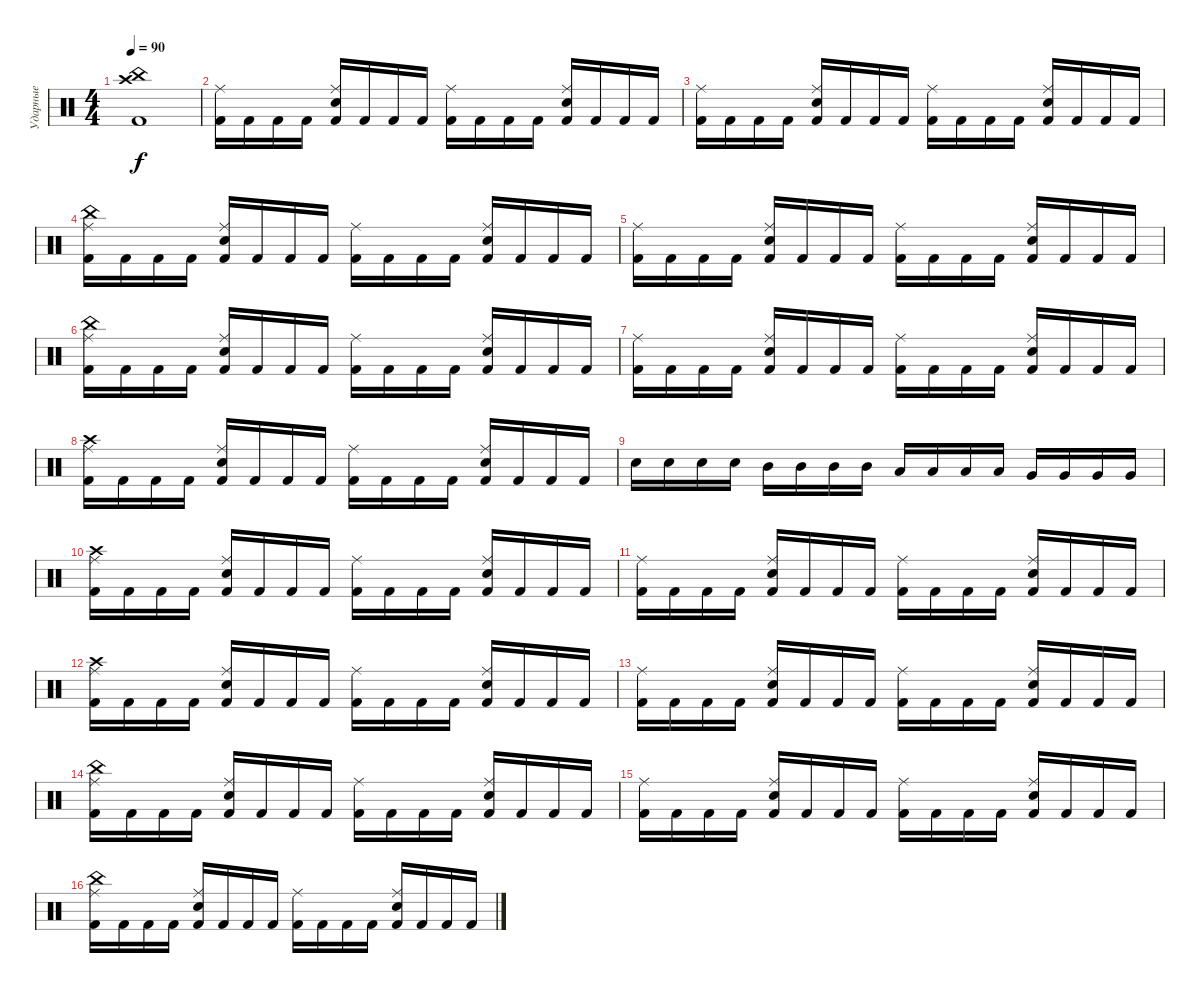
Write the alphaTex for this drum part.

\track ("Ударные" "Ударные") {instrument percussion}
\staff {score}
\articulation defaults
\ts (4 4)
\tempo 90
\clef neutral
\ks c
("Kick (hit) 2" "Crash high (hit)" "China (hit)").1{dy f} |
("Kick (hit) 2" "Ride (middle)").16 "Kick (hit) 2".16 "Kick (hit) 2".16 "Kick (hit) 2".16 ("Kick (hit) 2" "Ride (middle)" "Snare (hit) 2").16 "Kick (hit) 2".16 "Kick (hit) 2".16 "Kick (hit) 2".16 ("Kick (hit) 2" "Ride (middle)").16 "Kick (hit) 2".16 "Kick (hit) 2".16 "Kick (hit) 2".16 ("Kick (hit) 2" "Ride (middle)" "Snare (hit) 2").16 "Kick (hit) 2".16 "Kick (hit) 2".16 "Kick (hit) 2".16 |
("Kick (hit) 2" "Ride (middle)").16 "Kick (hit) 2".16 "Kick (hit) 2".16 "Kick (hit) 2".16 ("Kick (hit) 2" "Ride (middle)" "Snare (hit) 2").16 "Kick (hit) 2".16 "Kick (hit) 2".16 "Kick (hit) 2".16 ("Kick (hit) 2" "Ride (middle)").16 "Kick (hit) 2".16 "Kick (hit) 2".16 "Kick (hit) 2".16 ("Kick (hit) 2" "Ride (middle)" "Snare (hit) 2").16 "Kick (hit) 2".16 "Kick (hit) 2".16 "Kick (hit) 2".16 |
("Kick (hit) 2" "Ride (middle)" "China (hit)").16 "Kick (hit) 2".16 "Kick (hit) 2".16 "Kick (hit) 2".16 ("Kick (hit) 2" "Ride (middle)" "Snare (hit) 2").16 "Kick (hit) 2".16 "Kick (hit) 2".16 "Kick (hit) 2".16 ("Kick (hit) 2" "Ride (middle)").16 "Kick (hit) 2".16 "Kick (hit) 2".16 "Kick (hit) 2".16 ("Kick (hit) 2" "Ride (middle)" "Snare (hit) 2").16 "Kick (hit) 2".16 "Kick (hit) 2".16 "Kick (hit) 2".16 |
("Kick (hit) 2" "Ride (middle)").16 "Kick (hit) 2".16 "Kick (hit) 2".16 "Kick (hit) 2".16 ("Kick (hit) 2" "Ride (middle)" "Snare (hit) 2").16 "Kick (hit) 2".16 "Kick (hit) 2".16 "Kick (hit) 2".16 ("Kick (hit) 2" "Ride (middle)").16 "Kick (hit) 2".16 "Kick (hit) 2".16 "Kick (hit) 2".16 ("Kick (hit) 2" "Ride (middle)" "Snare (hit) 2").16 "Kick (hit) 2".16 "Kick (hit) 2".16 "Kick (hit) 2".16 |
("Kick (hit) 2" "Ride (middle)" "China (hit)").16 "Kick (hit) 2".16 "Kick (hit) 2".16 "Kick (hit) 2".16 ("Kick (hit) 2" "Ride (middle)" "Snare (hit) 2").16 "Kick (hit) 2".16 "Kick (hit) 2".16 "Kick (hit) 2".16 ("Kick (hit) 2" "Ride (middle)").16 "Kick (hit) 2".16 "Kick (hit) 2".16 "Kick (hit) 2".16 ("Kick (hit) 2" "Ride (middle)" "Snare (hit) 2").16 "Kick (hit) 2".16 "Kick (hit) 2".16 "Kick (hit) 2".16 |
("Kick (hit) 2" "Ride (middle)").16 "Kick (hit) 2".16 "Kick (hit) 2".16 "Kick (hit) 2".16 ("Kick (hit) 2" "Ride (middle)" "Snare (hit) 2").16 "Kick (hit) 2".16 "Kick (hit) 2".16 "Kick (hit) 2".16 ("Kick (hit) 2" "Ride (middle)").16 "Kick (hit) 2".16 "Kick (hit) 2".16 "Kick (hit) 2".16 ("Kick (hit) 2" "Ride (middle)" "Snare (hit) 2").16 "Kick (hit) 2".16 "Kick (hit) 2".16 "Kick (hit) 2".16 |
("Kick (hit) 2" "Ride (middle)" "Crash high (hit)").16 "Kick (hit) 2".16 "Kick (hit) 2".16 "Kick (hit) 2".16 ("Kick (hit) 2" "Ride (middle)" "Snare (hit) 2").16 "Kick (hit) 2".16 "Kick (hit) 2".16 "Kick (hit) 2".16 ("Kick (hit) 2" "Ride (middle)").16 "Kick (hit) 2".16 "Kick (hit) 2".16 "Kick (hit) 2".16 ("Kick (hit) 2" "Ride (middle)" "Snare (hit) 2").16 "Kick (hit) 2".16 "Kick (hit) 2".16 "Kick (hit) 2".16 |
"Snare (hit) 2".16 "Snare (hit) 2".16 "Snare (hit) 2".16 "Snare (hit) 2".16 "Mid Tom (hit)".16 "Mid Tom (hit)".16 "Mid Tom (hit)".16 "Mid Tom (hit)".16 "Low Tom (hit)".16 "Low Tom (hit)".16 "Low Tom (hit)".16 "Low Tom (hit)".16 "Very Low Tom (hit)".16 "Very Low Tom (hit)".16 "Very Low Tom (hit)".16 "Very Low Tom (hit)".16 |
("Kick (hit) 2" "Ride (middle)" "Crash high (hit)").16 "Kick (hit) 2".16 "Kick (hit) 2".16 "Kick (hit) 2".16 ("Kick (hit) 2" "Ride (middle)" "Snare (hit) 2").16 "Kick (hit) 2".16 "Kick (hit) 2".16 "Kick (hit) 2".16 ("Kick (hit) 2" "Ride (middle)").16 "Kick (hit) 2".16 "Kick (hit) 2".16 "Kick (hit) 2".16 ("Kick (hit) 2" "Ride (middle)" "Snare (hit) 2").16 "Kick (hit) 2".16 "Kick (hit) 2".16 "Kick (hit) 2".16 |
("Kick (hit) 2" "Ride (middle)").16 "Kick (hit) 2".16 "Kick (hit) 2".16 "Kick (hit) 2".16 ("Kick (hit) 2" "Ride (middle)" "Snare (hit) 2").16 "Kick (hit) 2".16 "Kick (hit) 2".16 "Kick (hit) 2".16 ("Kick (hit) 2" "Ride (middle)").16 "Kick (hit) 2".16 "Kick (hit) 2".16 "Kick (hit) 2".16 ("Kick (hit) 2" "Ride (middle)" "Snare (hit) 2").16 "Kick (hit) 2".16 "Kick (hit) 2".16 "Kick (hit) 2".16 |
("Kick (hit) 2" "Ride (middle)" "Crash high (hit)").16 "Kick (hit) 2".16 "Kick (hit) 2".16 "Kick (hit) 2".16 ("Kick (hit) 2" "Ride (middle)" "Snare (hit) 2").16 "Kick (hit) 2".16 "Kick (hit) 2".16 "Kick (hit) 2".16 ("Kick (hit) 2" "Ride (middle)").16 "Kick (hit) 2".16 "Kick (hit) 2".16 "Kick (hit) 2".16 ("Kick (hit) 2" "Ride (middle)" "Snare (hit) 2").16 "Kick (hit) 2".16 "Kick (hit) 2".16 "Kick (hit) 2".16 |
("Kick (hit) 2" "Ride (middle)").16 "Kick (hit) 2".16 "Kick (hit) 2".16 "Kick (hit) 2".16 ("Kick (hit) 2" "Ride (middle)" "Snare (hit) 2").16 "Kick (hit) 2".16 "Kick (hit) 2".16 "Kick (hit) 2".16 ("Kick (hit) 2" "Ride (middle)").16 "Kick (hit) 2".16 "Kick (hit) 2".16 "Kick (hit) 2".16 ("Kick (hit) 2" "Ride (middle)" "Snare (hit) 2").16 "Kick (hit) 2".16 "Kick (hit) 2".16 "Kick (hit) 2".16 |
("Kick (hit) 2" "Ride (middle)" "China (hit)").16 "Kick (hit) 2".16 "Kick (hit) 2".16 "Kick (hit) 2".16 ("Kick (hit) 2" "Ride (middle)" "Snare (hit) 2").16 "Kick (hit) 2".16 "Kick (hit) 2".16 "Kick (hit) 2".16 ("Kick (hit) 2" "Ride (middle)").16 "Kick (hit) 2".16 "Kick (hit) 2".16 "Kick (hit) 2".16 ("Kick (hit) 2" "Ride (middle)" "Snare (hit) 2").16 "Kick (hit) 2".16 "Kick (hit) 2".16 "Kick (hit) 2".16 |
("Kick (hit) 2" "Ride (middle)").16 "Kick (hit) 2".16 "Kick (hit) 2".16 "Kick (hit) 2".16 ("Kick (hit) 2" "Ride (middle)" "Snare (hit) 2").16 "Kick (hit) 2".16 "Kick (hit) 2".16 "Kick (hit) 2".16 ("Kick (hit) 2" "Ride (middle)").16 "Kick (hit) 2".16 "Kick (hit) 2".16 "Kick (hit) 2".16 ("Kick (hit) 2" "Ride (middle)" "Snare (hit) 2").16 "Kick (hit) 2".16 "Kick (hit) 2".16 "Kick (hit) 2".16 |
("Kick (hit) 2" "Ride (middle)" "China (hit)").16 "Kick (hit) 2".16 "Kick (hit) 2".16 "Kick (hit) 2".16 ("Kick (hit) 2" "Ride (middle)" "Snare (hit) 2").16 "Kick (hit) 2".16 "Kick (hit) 2".16 "Kick (hit) 2".16 ("Kick (hit) 2" "Ride (middle)").16 "Kick (hit) 2".16 "Kick (hit) 2".16 "Kick (hit) 2".16 ("Kick (hit) 2" "Ride (middle)" "Snare (hit) 2").16 "Kick (hit) 2".16 "Kick (hit) 2".16 "Kick (hit) 2".16
